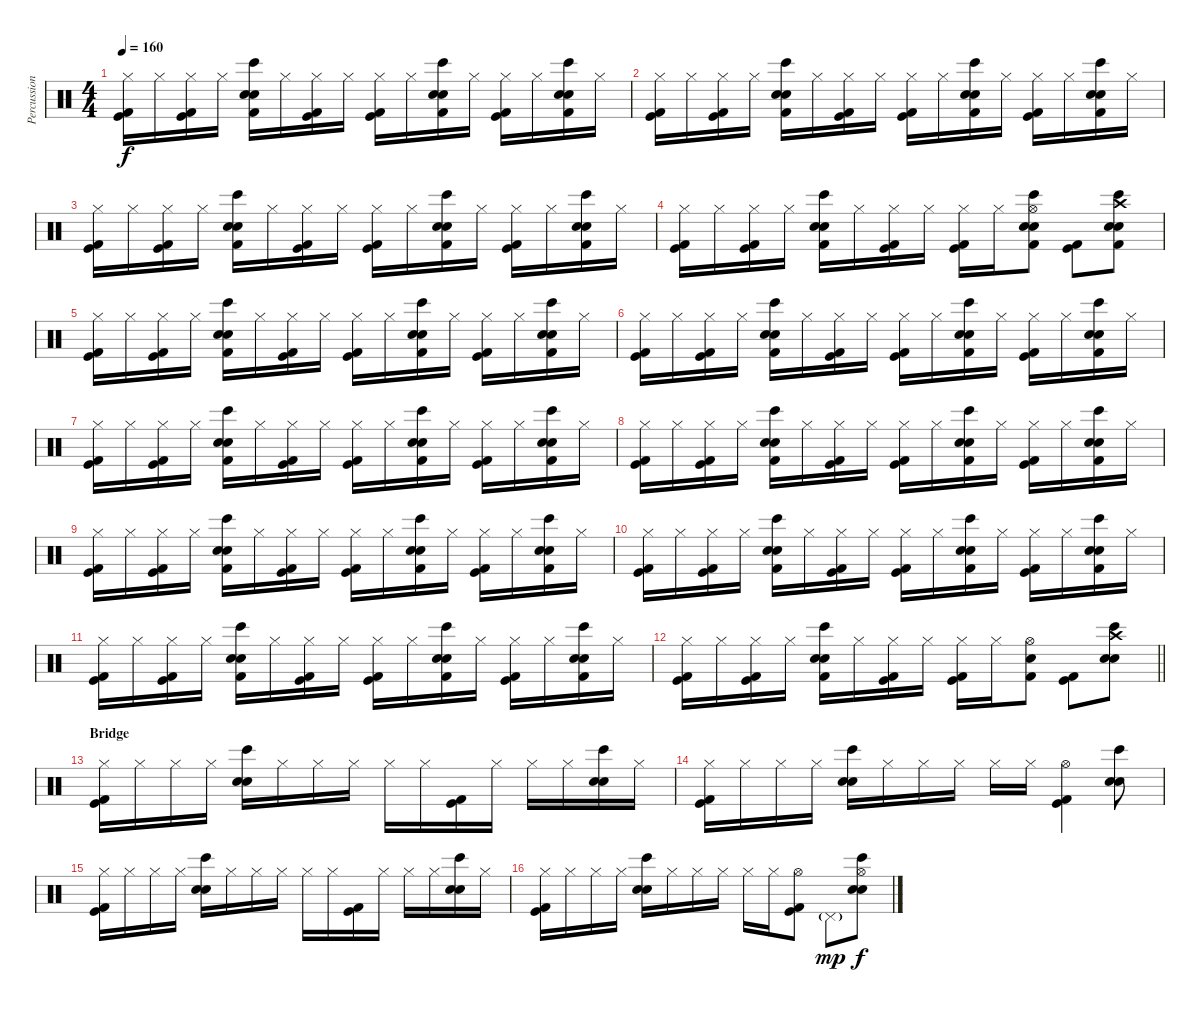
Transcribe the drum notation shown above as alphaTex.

\track ("Percussion" "Percussion") {instrument percussion}
\staff {score}
\articulation defaults
\ts (4 4)
\tempo 160
\clef neutral
\ks c
("Hi-Hat (closed)" "Kick (hit)" "Kick (hit) 2").16{dy f} "Hi-Hat (closed)".16 ("Hi-Hat (closed)" "Kick (hit)" "Kick (hit) 2").16 "Hi-Hat (closed)".16 ("Hand Clap (hit)" "Bongo High (hit)" "Electric Snare (hit)" "Kick (hit) 2").16 "Hi-Hat (closed)".16 ("Hi-Hat (closed)" "Kick (hit)" "Kick (hit) 2").16 "Hi-Hat (closed)".16 ("Hi-Hat (closed)" "Kick (hit)" "Kick (hit) 2").16 "Hi-Hat (closed)".16 ("Hand Clap (hit)" "Bongo High (hit)" "Electric Snare (hit)" "Kick (hit) 2").16 "Hi-Hat (closed)".16 ("Hi-Hat (closed)" "Kick (hit)" "Kick (hit) 2").16 "Hi-Hat (closed)".16 ("Hand Clap (hit)" "Bongo High (hit)" "Electric Snare (hit)" "Kick (hit) 2").16 "Hi-Hat (closed)".16 |
("Hi-Hat (closed)" "Kick (hit)" "Kick (hit) 2").16 "Hi-Hat (closed)".16 ("Hi-Hat (closed)" "Kick (hit)" "Kick (hit) 2").16 "Hi-Hat (closed)".16 ("Hand Clap (hit)" "Bongo High (hit)" "Electric Snare (hit)" "Kick (hit) 2").16 "Hi-Hat (closed)".16 ("Hi-Hat (closed)" "Kick (hit)" "Kick (hit) 2").16 "Hi-Hat (closed)".16 ("Hi-Hat (closed)" "Kick (hit)" "Kick (hit) 2").16 "Hi-Hat (closed)".16 ("Hand Clap (hit)" "Bongo High (hit)" "Electric Snare (hit)" "Kick (hit) 2").16 "Hi-Hat (closed)".16 ("Hi-Hat (closed)" "Kick (hit)" "Kick (hit) 2").16 "Hi-Hat (closed)".16 ("Hand Clap (hit)" "Bongo High (hit)" "Electric Snare (hit)" "Kick (hit) 2").16 "Hi-Hat (closed)".16 |
("Hi-Hat (closed)" "Kick (hit)" "Kick (hit) 2").16 "Hi-Hat (closed)".16 ("Hi-Hat (closed)" "Kick (hit)" "Kick (hit) 2").16 "Hi-Hat (closed)".16 ("Hand Clap (hit)" "Bongo High (hit)" "Electric Snare (hit)" "Kick (hit) 2").16 "Hi-Hat (closed)".16 ("Hi-Hat (closed)" "Kick (hit)" "Kick (hit) 2").16 "Hi-Hat (closed)".16 ("Hi-Hat (closed)" "Kick (hit)" "Kick (hit) 2").16 "Hi-Hat (closed)".16 ("Hand Clap (hit)" "Bongo High (hit)" "Electric Snare (hit)" "Kick (hit) 2").16 "Hi-Hat (closed)".16 ("Hi-Hat (closed)" "Kick (hit)" "Kick (hit) 2").16 "Hi-Hat (closed)".16 ("Hand Clap (hit)" "Bongo High (hit)" "Electric Snare (hit)" "Kick (hit) 2").16 "Hi-Hat (closed)".16 |
("Hi-Hat (closed)" "Kick (hit)" "Kick (hit) 2").16 "Hi-Hat (closed)".16 ("Hi-Hat (closed)" "Kick (hit)" "Kick (hit) 2").16 "Hi-Hat (closed)".16 ("Hand Clap (hit)" "Bongo High (hit)" "Electric Snare (hit)" "Kick (hit) 2").16 "Hi-Hat (closed)".16 ("Hi-Hat (closed)" "Kick (hit)" "Kick (hit) 2").16 "Hi-Hat (closed)".16 ("Hi-Hat (closed)" "Kick (hit)" "Kick (hit) 2").16 "Hi-Hat (closed)".16 ("Hi-Hat (open)" "Hand Clap (hit)" "Bongo High (hit)" "Electric Snare (hit)" "Kick (hit) 2").8 ("Kick (hit)" "Kick (hit) 2").8 ("Crash high (hit)" "Hand Clap (hit)" "Bongo High (hit)" "Electric Snare (hit)" "Kick (hit) 2").8 |
("Hi-Hat (closed)" "Kick (hit)" "Kick (hit) 2").16 "Hi-Hat (closed)".16 ("Hi-Hat (closed)" "Kick (hit)" "Kick (hit) 2").16 "Hi-Hat (closed)".16 ("Hand Clap (hit)" "Bongo High (hit)" "Electric Snare (hit)" "Kick (hit) 2").16 "Hi-Hat (closed)".16 ("Hi-Hat (closed)" "Kick (hit)" "Kick (hit) 2").16 "Hi-Hat (closed)".16 ("Hi-Hat (closed)" "Kick (hit)" "Kick (hit) 2").16 "Hi-Hat (closed)".16 ("Hand Clap (hit)" "Bongo High (hit)" "Electric Snare (hit)" "Kick (hit) 2").16 "Hi-Hat (closed)".16 ("Hi-Hat (closed)" "Kick (hit)" "Kick (hit) 2").16 "Hi-Hat (closed)".16 ("Hand Clap (hit)" "Bongo High (hit)" "Electric Snare (hit)" "Kick (hit) 2").16 "Hi-Hat (closed)".16 |
("Hi-Hat (closed)" "Kick (hit)" "Kick (hit) 2").16 "Hi-Hat (closed)".16 ("Hi-Hat (closed)" "Kick (hit)" "Kick (hit) 2").16 "Hi-Hat (closed)".16 ("Hand Clap (hit)" "Bongo High (hit)" "Electric Snare (hit)" "Kick (hit) 2").16 "Hi-Hat (closed)".16 ("Hi-Hat (closed)" "Kick (hit)" "Kick (hit) 2").16 "Hi-Hat (closed)".16 ("Hi-Hat (closed)" "Kick (hit)" "Kick (hit) 2").16 "Hi-Hat (closed)".16 ("Hand Clap (hit)" "Bongo High (hit)" "Electric Snare (hit)" "Kick (hit) 2").16 "Hi-Hat (closed)".16 ("Hi-Hat (closed)" "Kick (hit)" "Kick (hit) 2").16 "Hi-Hat (closed)".16 ("Hand Clap (hit)" "Bongo High (hit)" "Electric Snare (hit)" "Kick (hit) 2").16 "Hi-Hat (closed)".16 |
("Hi-Hat (closed)" "Kick (hit)" "Kick (hit) 2").16 "Hi-Hat (closed)".16 ("Hi-Hat (closed)" "Kick (hit)" "Kick (hit) 2").16 "Hi-Hat (closed)".16 ("Hand Clap (hit)" "Bongo High (hit)" "Electric Snare (hit)" "Kick (hit) 2").16 "Hi-Hat (closed)".16 ("Hi-Hat (closed)" "Kick (hit)" "Kick (hit) 2").16 "Hi-Hat (closed)".16 ("Hi-Hat (closed)" "Kick (hit)" "Kick (hit) 2").16 "Hi-Hat (closed)".16 ("Hand Clap (hit)" "Bongo High (hit)" "Electric Snare (hit)" "Kick (hit) 2").16 "Hi-Hat (closed)".16 ("Hi-Hat (closed)" "Kick (hit)" "Kick (hit) 2").16 "Hi-Hat (closed)".16 ("Hand Clap (hit)" "Bongo High (hit)" "Electric Snare (hit)" "Kick (hit) 2").16 "Hi-Hat (closed)".16 |
("Hi-Hat (closed)" "Kick (hit)" "Kick (hit) 2").16 "Hi-Hat (closed)".16 ("Hi-Hat (closed)" "Kick (hit)" "Kick (hit) 2").16 "Hi-Hat (closed)".16 ("Hand Clap (hit)" "Bongo High (hit)" "Electric Snare (hit)" "Kick (hit) 2").16 "Hi-Hat (closed)".16 ("Hi-Hat (closed)" "Kick (hit)" "Kick (hit) 2").16 "Hi-Hat (closed)".16 ("Hi-Hat (closed)" "Kick (hit)" "Kick (hit) 2").16 "Hi-Hat (closed)".16 ("Hand Clap (hit)" "Bongo High (hit)" "Electric Snare (hit)" "Kick (hit) 2").16 "Hi-Hat (closed)".16 ("Hi-Hat (closed)" "Kick (hit)" "Kick (hit) 2").16 "Hi-Hat (closed)".16 ("Hand Clap (hit)" "Bongo High (hit)" "Electric Snare (hit)" "Kick (hit) 2").16 "Hi-Hat (closed)".16 |
("Hi-Hat (closed)" "Kick (hit)" "Kick (hit) 2").16 "Hi-Hat (closed)".16 ("Hi-Hat (closed)" "Kick (hit)" "Kick (hit) 2").16 "Hi-Hat (closed)".16 ("Hand Clap (hit)" "Bongo High (hit)" "Electric Snare (hit)" "Kick (hit) 2").16 "Hi-Hat (closed)".16 ("Hi-Hat (closed)" "Kick (hit)" "Kick (hit) 2").16 "Hi-Hat (closed)".16 ("Hi-Hat (closed)" "Kick (hit)" "Kick (hit) 2").16 "Hi-Hat (closed)".16 ("Hand Clap (hit)" "Bongo High (hit)" "Electric Snare (hit)" "Kick (hit) 2").16 "Hi-Hat (closed)".16 ("Hi-Hat (closed)" "Kick (hit)" "Kick (hit) 2").16 "Hi-Hat (closed)".16 ("Hand Clap (hit)" "Bongo High (hit)" "Electric Snare (hit)" "Kick (hit) 2").16 "Hi-Hat (closed)".16 |
("Hi-Hat (closed)" "Kick (hit)" "Kick (hit) 2").16 "Hi-Hat (closed)".16 ("Hi-Hat (closed)" "Kick (hit)" "Kick (hit) 2").16 "Hi-Hat (closed)".16 ("Hand Clap (hit)" "Bongo High (hit)" "Electric Snare (hit)" "Kick (hit) 2").16 "Hi-Hat (closed)".16 ("Hi-Hat (closed)" "Kick (hit)" "Kick (hit) 2").16 "Hi-Hat (closed)".16 ("Hi-Hat (closed)" "Kick (hit)" "Kick (hit) 2").16 "Hi-Hat (closed)".16 ("Hand Clap (hit)" "Bongo High (hit)" "Electric Snare (hit)" "Kick (hit) 2").16 "Hi-Hat (closed)".16 ("Hi-Hat (closed)" "Kick (hit)" "Kick (hit) 2").16 "Hi-Hat (closed)".16 ("Hand Clap (hit)" "Bongo High (hit)" "Electric Snare (hit)" "Kick (hit) 2").16 "Hi-Hat (closed)".16 |
("Hi-Hat (closed)" "Kick (hit)" "Kick (hit) 2").16 "Hi-Hat (closed)".16 ("Hi-Hat (closed)" "Kick (hit)" "Kick (hit) 2").16 "Hi-Hat (closed)".16 ("Hand Clap (hit)" "Bongo High (hit)" "Electric Snare (hit)" "Kick (hit) 2").16 "Hi-Hat (closed)".16 ("Hi-Hat (closed)" "Kick (hit)" "Kick (hit) 2").16 "Hi-Hat (closed)".16 ("Hi-Hat (closed)" "Kick (hit)" "Kick (hit) 2").16 "Hi-Hat (closed)".16 ("Hand Clap (hit)" "Bongo High (hit)" "Electric Snare (hit)" "Kick (hit) 2").16 "Hi-Hat (closed)".16 ("Hi-Hat (closed)" "Kick (hit)" "Kick (hit) 2").16 "Hi-Hat (closed)".16 ("Hand Clap (hit)" "Bongo High (hit)" "Electric Snare (hit)" "Kick (hit) 2").16 "Hi-Hat (closed)".16 |
\barLineRight lightlight
("Hi-Hat (closed)" "Kick (hit)" "Kick (hit) 2").16 "Hi-Hat (closed)".16 ("Hi-Hat (closed)" "Kick (hit)" "Kick (hit) 2").16 "Hi-Hat (closed)".16 ("Hand Clap (hit)" "Bongo High (hit)" "Electric Snare (hit)" "Kick (hit) 2").16 "Hi-Hat (closed)".16 ("Hi-Hat (closed)" "Kick (hit)" "Kick (hit) 2").16 "Hi-Hat (closed)".16 ("Hi-Hat (closed)" "Kick (hit)" "Kick (hit) 2").16 "Hi-Hat (closed)".16 ("Hi-Hat (open)" "Electric Snare (hit)" "Kick (hit) 2").8 ("Kick (hit)" "Kick (hit) 2").8 ("Crash high (hit)" "Hand Clap (hit)" "Bongo High (hit)" "Electric Snare (hit)").8 |
\section ("" "Bridge")
("Hi-Hat (closed)" "Kick (hit)" "Kick (hit) 2").16 "Hi-Hat (closed)".16 "Hi-Hat (closed)".16 "Hi-Hat (closed)".16 ("Hand Clap (hit)" "Bongo High (hit)" "Electric Snare (hit)").16 "Hi-Hat (closed)".16 "Hi-Hat (closed)".16 "Hi-Hat (closed)".16 "Hi-Hat (closed)".16 "Hi-Hat (closed)".16 ("Kick (hit)" "Kick (hit) 2").16 "Hi-Hat (closed)".16 "Hi-Hat (closed)".16 "Hi-Hat (closed)".16 ("Hand Clap (hit)" "Bongo High (hit)" "Electric Snare (hit)").16 "Hi-Hat (closed)".16 |
("Hi-Hat (closed)" "Kick (hit)" "Kick (hit) 2").16 "Hi-Hat (closed)".16 "Hi-Hat (closed)".16 "Hi-Hat (closed)".16 ("Hand Clap (hit)" "Bongo High (hit)" "Electric Snare (hit)").16 "Hi-Hat (closed)".16 "Hi-Hat (closed)".16 "Hi-Hat (closed)".16 "Hi-Hat (closed)".16 "Hi-Hat (closed)".16 ("Hi-Hat (open)" "Kick (hit)" "Kick (hit) 2").4 ("Hand Clap (hit)" "Bongo High (hit)" "Electric Snare (hit)").8 |
("Hi-Hat (closed)" "Kick (hit)" "Kick (hit) 2").16 "Hi-Hat (closed)".16 "Hi-Hat (closed)".16 "Hi-Hat (closed)".16 ("Hand Clap (hit)" "Bongo High (hit)" "Electric Snare (hit)").16 "Hi-Hat (closed)".16 "Hi-Hat (closed)".16 "Hi-Hat (closed)".16 "Hi-Hat (closed)".16 "Hi-Hat (closed)".16 ("Kick (hit)" "Kick (hit) 2").16 "Hi-Hat (closed)".16 "Hi-Hat (closed)".16 "Hi-Hat (closed)".16 ("Hand Clap (hit)" "Bongo High (hit)" "Electric Snare (hit)").16 "Hi-Hat (closed)".16 |
("Hi-Hat (closed)" "Kick (hit)" "Kick (hit) 2").16 "Hi-Hat (closed)".16 "Hi-Hat (closed)".16 "Hi-Hat (closed)".16 ("Hand Clap (hit)" "Bongo High (hit)" "Electric Snare (hit)").16 "Hi-Hat (closed)".16 "Hi-Hat (closed)".16 "Hi-Hat (closed)".16 "Hi-Hat (closed)".16 "Hi-Hat (closed)".16 ("Hi-Hat (open)" "Kick (hit)" "Kick (hit) 2").8 "Pedal Hi-Hat (hit)"{g}.8{dy mp} ("Hi-Hat (open)" "Hand Clap (hit)" "Bongo High (hit)" "Electric Snare (hit)").8{dy f}
